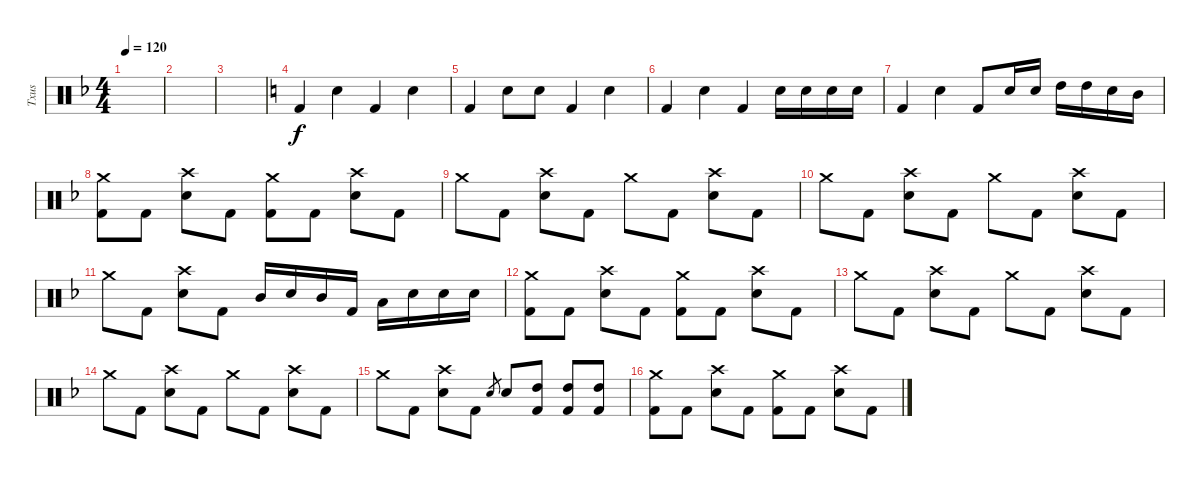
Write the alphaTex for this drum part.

\track ("Txus" "Txus") {instrument percussion}
\staff {score}
\articulation defaults
\ts (4 4)
\tempo 120
\clef neutral
\ks dminor
|
|
|
\ks c "Kick (hit) 2".4 "Electric Snare (hit)".4 "Kick (hit) 2".4 "Electric Snare (hit)".4
|
"Kick (hit) 2".4 "Electric Snare (hit)".8 "Electric Snare (hit)".8 "Kick (hit) 2".4 "Electric Snare (hit)".4 |
"Kick (hit) 2".4 "Electric Snare (hit)".4 "Kick (hit) 2".4 "Electric Snare (hit)".16 "Electric Snare (hit)".16 "Electric Snare (hit)".16 "Electric Snare (hit)".16 |
"Kick (hit) 2".4 "Electric Snare (hit)".4 "Kick (hit) 2".8 "Electric Snare (hit)".16 "Electric Snare (hit)".16 "High Tom (hit)".16 "High Tom (hit)".16 "Electric Snare (hit)".16 "Mid Tom (hit)".16 |
\ks dminor
("Crash medium (hit)" "Kick (hit) 2").8 "Kick (hit) 2".8 ("Crash high (hit)" "Electric Snare (hit)").8 "Kick (hit) 2".8 ("Crash medium (hit)" "Kick (hit) 2").8 "Kick (hit) 2".8 ("Crash high (hit)" "Electric Snare (hit)").8 "Kick (hit) 2".8 |
"Crash medium (hit)".8 "Kick (hit) 2".8 ("Crash high (hit)" "Electric Snare (hit)").8 "Kick (hit) 2".8 "Crash medium (hit)".8 "Kick (hit) 2".8 ("Crash high (hit)" "Electric Snare (hit)").8 "Kick (hit) 2".8 |
"Crash medium (hit)".8 "Kick (hit) 2".8 ("Crash high (hit)" "Electric Snare (hit)").8 "Kick (hit) 2".8 "Crash medium (hit)".8 "Kick (hit) 2".8 ("Crash high (hit)" "Electric Snare (hit)").8 "Kick (hit) 2".8 |
"Crash medium (hit)".8 "Kick (hit) 2".8 ("Crash high (hit)" "Electric Snare (hit)").8 "Kick (hit) 2".8 "Mid Tom (hit)".16 "Electric Snare (hit)".16 "Mid Tom (hit)".16 "Kick (hit) 2".16 "Low Tom (hit)".16 "Electric Snare (hit)".16 "Electric Snare (hit)".16 "Electric Snare (hit)".16 |
("Crash medium (hit)" "Kick (hit) 2").8 "Kick (hit) 2".8 ("Crash high (hit)" "Electric Snare (hit)").8 "Kick (hit) 2".8 ("Crash medium (hit)" "Kick (hit) 2").8 "Kick (hit) 2".8 ("Crash high (hit)" "Electric Snare (hit)").8 "Kick (hit) 2".8 |
"Crash medium (hit)".8 "Kick (hit) 2".8 ("Crash high (hit)" "Electric Snare (hit)").8 "Kick (hit) 2".8 "Crash medium (hit)".8 "Kick (hit) 2".8 ("Crash high (hit)" "Electric Snare (hit)").8 "Kick (hit) 2".8 |
"Crash medium (hit)".8 "Kick (hit) 2".8 ("Crash high (hit)" "Electric Snare (hit)").8 "Kick (hit) 2".8 "Crash medium (hit)".8 "Kick (hit) 2".8 ("Crash high (hit)" "Electric Snare (hit)").8 "Kick (hit) 2".8 |
"Crash medium (hit)".8 "Kick (hit) 2".8 ("Crash high (hit)" "Electric Snare (hit)").8 "Kick (hit) 2".8 "Electric Snare (hit)".8{gr} "Electric Snare (hit)".8 ("High Tom (hit)" "Kick (hit) 2").8 ("High Tom (hit)" "Kick (hit) 2").8 ("High Tom (hit)" "Kick (hit) 2").8 |
("Crash medium (hit)" "Kick (hit) 2").8 "Kick (hit) 2".8 ("Crash high (hit)" "Electric Snare (hit)").8 "Kick (hit) 2".8 ("Crash medium (hit)" "Kick (hit) 2").8 "Kick (hit) 2".8 ("Crash high (hit)" "Electric Snare (hit)").8 "Kick (hit) 2".8
